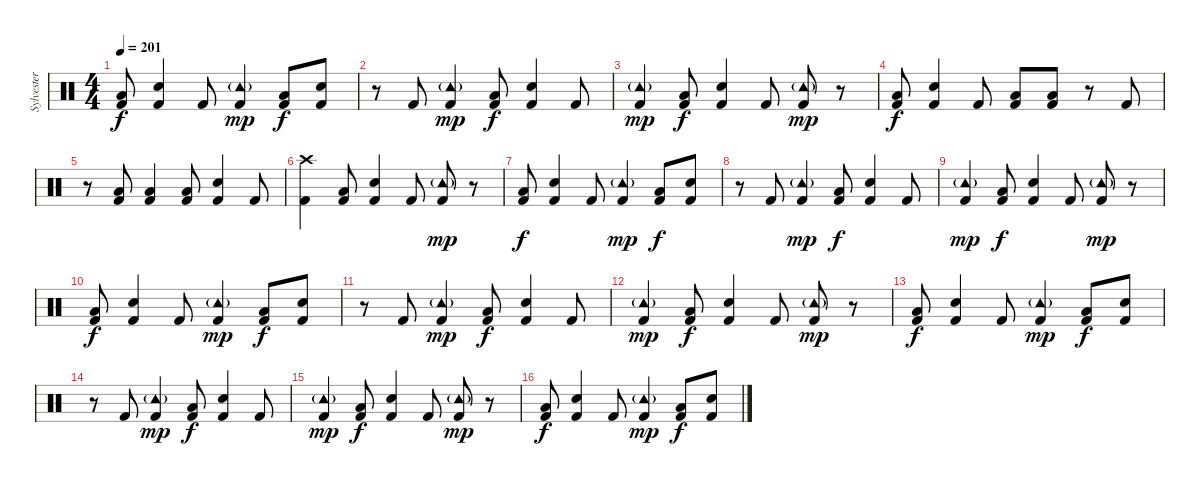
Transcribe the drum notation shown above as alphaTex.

\track ("Sylvester Schlegel" "Sylvester ") {instrument percussion}
\staff {score}
\articulation defaults
\ts (4 4)
\tempo 201
\clef neutral
\ks c
("Low Floor Tom (hit)" "Kick (hit) 2").8{dy f} ("Snare (hit) 2" "Kick (hit) 2").4 "Kick (hit) 2".8 ("Tambourine (hit)"{g} "Kick (hit) 2").4{dy mp} ("Low Floor Tom (hit)" "Kick (hit) 2").8{dy f} ("Snare (hit) 2" "Kick (hit) 2").8 |
r.8 "Kick (hit) 2".8 ("Tambourine (hit)"{g} "Kick (hit) 2").4{dy mp} ("Low Floor Tom (hit)" "Kick (hit) 2").8{dy f} ("Snare (hit) 2" "Kick (hit) 2").4 "Kick (hit) 2".8 |
("Tambourine (hit)"{g} "Kick (hit) 2").4{dy mp} ("Low Floor Tom (hit)" "Kick (hit) 2").8{dy f} ("Snare (hit) 2" "Kick (hit) 2").4 "Kick (hit) 2".8 ("Tambourine (hit)"{g} "Kick (hit) 2").8{dy mp} r.8 |
("Low Floor Tom (hit)" "Kick (hit) 2").8{dy f} ("Snare (hit) 2" "Kick (hit) 2").4 "Kick (hit) 2".8 ("Low Tom (hit)" "Kick (hit) 2").8 ("Low Floor Tom (hit)" "Kick (hit) 2").8 r.8 "Kick (hit) 2".8 |
r.8 ("Low Tom (hit)" "Kick (hit) 2").8 ("Low Floor Tom (hit)" "Kick (hit) 2").4 ("Low Floor Tom (hit)" "Kick (hit) 2").8 ("Snare (hit) 2" "Kick (hit) 2").4 "Kick (hit) 2".8 |
("Crash high (hit)" "Kick (hit) 2").4 ("Low Floor Tom (hit)" "Kick (hit) 2").8 ("Snare (hit) 2" "Kick (hit) 2").4 "Kick (hit) 2".8 ("Tambourine (hit)"{g} "Kick (hit) 2").8{dy mp} r.8 |
("Low Floor Tom (hit)" "Kick (hit) 2").8{dy f} ("Snare (hit) 2" "Kick (hit) 2").4 "Kick (hit) 2".8 ("Tambourine (hit)"{g} "Kick (hit) 2").4{dy mp} ("Low Floor Tom (hit)" "Kick (hit) 2").8{dy f} ("Snare (hit) 2" "Kick (hit) 2").8 |
r.8 "Kick (hit) 2".8 ("Tambourine (hit)"{g} "Kick (hit) 2").4{dy mp} ("Low Floor Tom (hit)" "Kick (hit) 2").8{dy f} ("Snare (hit) 2" "Kick (hit) 2").4 "Kick (hit) 2".8 |
("Tambourine (hit)"{g} "Kick (hit) 2").4{dy mp} ("Low Floor Tom (hit)" "Kick (hit) 2").8{dy f} ("Snare (hit) 2" "Kick (hit) 2").4 "Kick (hit) 2".8 ("Tambourine (hit)"{g} "Kick (hit) 2").8{dy mp} r.8 |
("Low Floor Tom (hit)" "Kick (hit) 2").8{dy f} ("Snare (hit) 2" "Kick (hit) 2").4 "Kick (hit) 2".8 ("Tambourine (hit)"{g} "Kick (hit) 2").4{dy mp} ("Low Floor Tom (hit)" "Kick (hit) 2").8{dy f} ("Snare (hit) 2" "Kick (hit) 2").8 |
r.8 "Kick (hit) 2".8 ("Tambourine (hit)"{g} "Kick (hit) 2").4{dy mp} ("Low Floor Tom (hit)" "Kick (hit) 2").8{dy f} ("Snare (hit) 2" "Kick (hit) 2").4 "Kick (hit) 2".8 |
("Tambourine (hit)"{g} "Kick (hit) 2").4{dy mp} ("Low Floor Tom (hit)" "Kick (hit) 2").8{dy f} ("Snare (hit) 2" "Kick (hit) 2").4 "Kick (hit) 2".8 ("Tambourine (hit)"{g} "Kick (hit) 2").8{dy mp} r.8 |
("Low Floor Tom (hit)" "Kick (hit) 2").8{dy f} ("Snare (hit) 2" "Kick (hit) 2").4 "Kick (hit) 2".8 ("Tambourine (hit)"{g} "Kick (hit) 2").4{dy mp} ("Low Floor Tom (hit)" "Kick (hit) 2").8{dy f} ("Snare (hit) 2" "Kick (hit) 2").8 |
r.8 "Kick (hit) 2".8 ("Tambourine (hit)"{g} "Kick (hit) 2").4{dy mp} ("Low Floor Tom (hit)" "Kick (hit) 2").8{dy f} ("Snare (hit) 2" "Kick (hit) 2").4 "Kick (hit) 2".8 |
("Tambourine (hit)"{g} "Kick (hit) 2").4{dy mp} ("Low Floor Tom (hit)" "Kick (hit) 2").8{dy f} ("Snare (hit) 2" "Kick (hit) 2").4 "Kick (hit) 2".8 ("Tambourine (hit)"{g} "Kick (hit) 2").8{dy mp} r.8 |
("Low Floor Tom (hit)" "Kick (hit) 2").8{dy f} ("Snare (hit) 2" "Kick (hit) 2").4 "Kick (hit) 2".8 ("Tambourine (hit)"{g} "Kick (hit) 2").4{dy mp} ("Low Floor Tom (hit)" "Kick (hit) 2").8{dy f} ("Snare (hit) 2" "Kick (hit) 2").8
